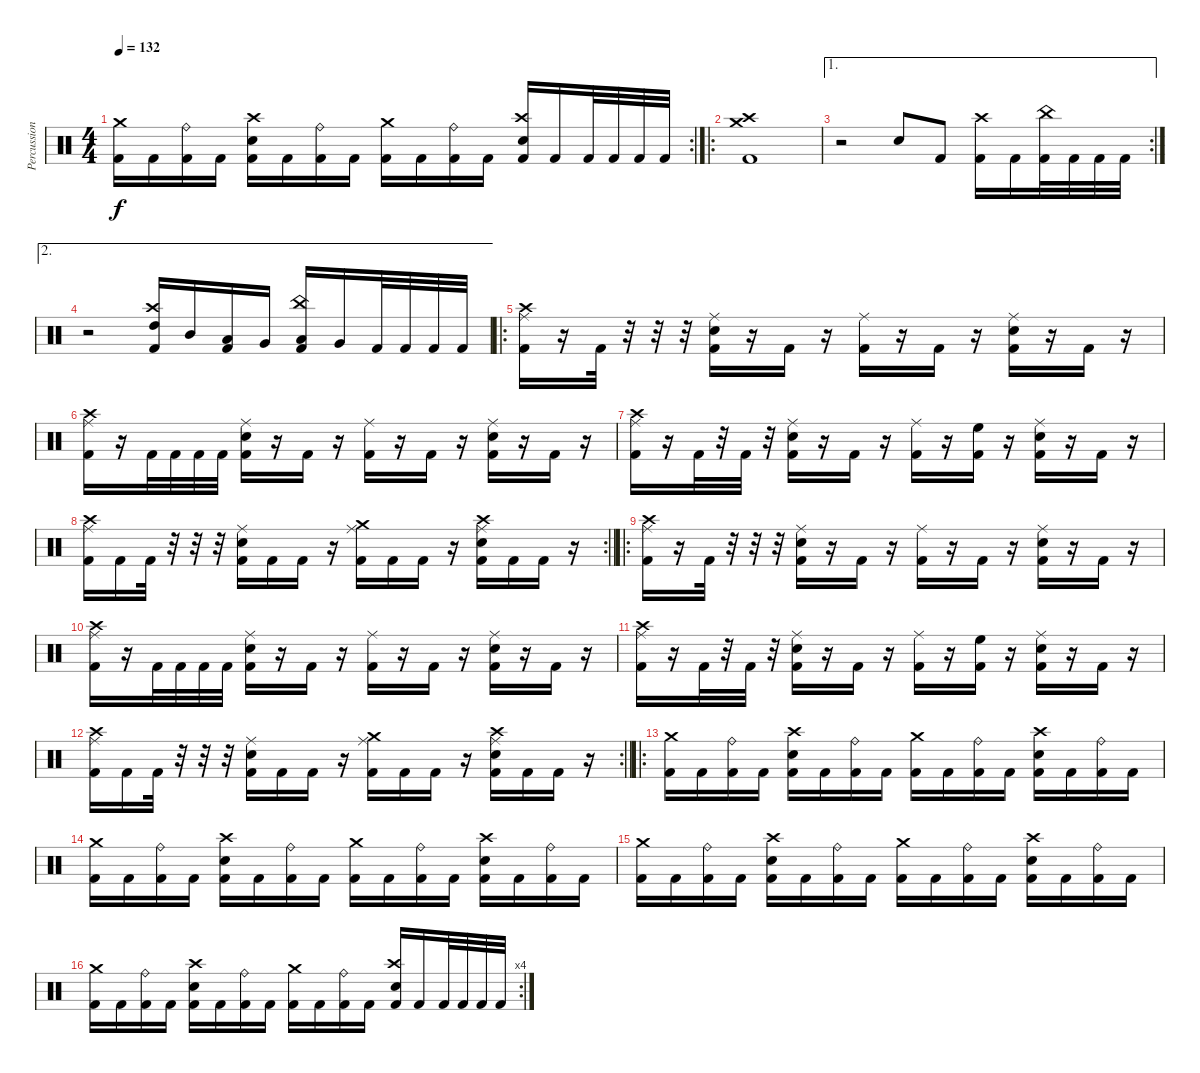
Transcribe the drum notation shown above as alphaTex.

\track ("Percussion" "Percussion") {instrument percussion}
\staff {score}
\articulation defaults
\rc 2
\ts (4 4)
\tempo 132
\clef neutral
\ks c
("Crash medium (hit)" "Kick (hit) 2").16{dy f} "Kick (hit) 2".16 ("Ride (bell)" "Kick (hit) 2").16 "Kick (hit) 2".16 ("Crash high (hit)" "Snare (hit) 2" "Kick (hit) 2").16 "Kick (hit) 2".16 ("Ride (bell)" "Kick (hit) 2").16 "Kick (hit) 2".16 ("Crash medium (hit)" "Kick (hit) 2").16 "Kick (hit) 2".16 ("Ride (bell)" "Kick (hit) 2").16 "Kick (hit) 2".16 ("Crash high (hit)" "Snare (hit) 2" "Kick (hit) 2").16 "Kick (hit) 2".16 "Kick (hit) 2".32 "Kick (hit) 2".32 "Kick (hit) 2".32 "Kick (hit) 2".32 |
\ro
("Crash high (hit)" "Crash medium (hit)" "Kick (hit) 2").1 |
\ae 1
\rc 2
r.2 "Snare (hit) 2".8 "Kick (hit) 2".8 ("Crash high (hit)" "Kick (hit) 2").16 "Kick (hit) 2".16 ("China (hit)" "Kick (hit) 2").32 "Kick (hit) 2".32 "Kick (hit) 2".32 "Kick (hit) 2".32 |
\ae 2
r.2 ("Crash high (hit)" "High Tom (hit)" "Kick (hit) 2").16 "Mid Tom (hit)".16 ("Low Tom (hit)" "Kick (hit) 2").16 "Very Low Tom (hit)".16 ("China (hit)" "Low Floor Tom (hit)" "Kick (hit) 2").16 "Very Low Tom (hit)".16 "Kick (hit) 2".32 "Kick (hit) 2".32 "Kick (hit) 2".32 "Kick (hit) 2".32 |
\ro
("Crash high (hit)" "Ride (middle)" "Kick (hit) 2").16 r.16 "Kick (hit) 2".32 r.32 r.32 r.32 ("Ride (middle)" "Snare (hit) 2" "Kick (hit) 2").16 r.16 "Kick (hit) 2".16 r.16 ("Ride (middle)" "Kick (hit) 2").16 r.16 "Kick (hit) 2".16 r.16 ("Ride (middle)" "Snare (hit) 2" "Kick (hit) 2").16 r.16 "Kick (hit) 2".16 r.16 |
("Crash high (hit)" "Ride (middle)" "Kick (hit) 2").16 r.16 "Kick (hit) 2".32 "Kick (hit) 2".32 "Kick (hit) 2".32 "Kick (hit) 2".32 ("Ride (middle)" "Snare (hit) 2" "Kick (hit) 2").16 r.16 "Kick (hit) 2".16 r.16 ("Ride (middle)" "Kick (hit) 2").16 r.16 "Kick (hit) 2".16 r.16 ("Ride (middle)" "Snare (hit) 2" "Kick (hit) 2").16 r.16 "Kick (hit) 2".16 r.16 |
("Crash high (hit)" "Ride (middle)" "Kick (hit) 2").16 r.16 "Kick (hit) 2".32 r.32 "Kick (hit) 2".32 r.32 ("Ride (middle)" "Snare (hit) 2" "Kick (hit) 2").16 r.16 "Kick (hit) 2".16 r.16 ("Ride (middle)" "Kick (hit) 2").16 r.16 ("High Floor Tom (hit)" "Kick (hit) 2").16 r.16 ("Ride (middle)" "Snare (hit) 2" "Kick (hit) 2").16 r.16 "Kick (hit) 2".16 r.16 |
\rc 2
\barLineRight lightlight
("Crash high (hit)" "Ride (middle)" "Kick (hit) 2").16 "Kick (hit) 2".16 "Kick (hit) 2".32 r.32 r.32 r.32 ("Ride (middle)" "Snare (hit) 2" "Kick (hit) 2").16 "Kick (hit) 2".16 "Kick (hit) 2".16 r.16 ("Crash medium (hit)" "Ride (middle)" "Kick (hit) 2").16 "Kick (hit) 2".16 "Kick (hit) 2".16 r.16 ("Crash high (hit)" "Ride (middle)" "Snare (hit) 2" "Kick (hit) 2").16 "Kick (hit) 2".16 "Kick (hit) 2".16 r.16 |
\ro
("Crash high (hit)" "Ride (middle)" "Kick (hit) 2").16 r.16 "Kick (hit) 2".32 r.32 r.32 r.32 ("Ride (middle)" "Snare (hit) 2" "Kick (hit) 2").16 r.16 "Kick (hit) 2".16 r.16 ("Ride (middle)" "Kick (hit) 2").16 r.16 "Kick (hit) 2".16 r.16 ("Ride (middle)" "Snare (hit) 2" "Kick (hit) 2").16 r.16 "Kick (hit) 2".16 r.16 |
("Crash high (hit)" "Ride (middle)" "Kick (hit) 2").16 r.16 "Kick (hit) 2".32 "Kick (hit) 2".32 "Kick (hit) 2".32 "Kick (hit) 2".32 ("Ride (middle)" "Snare (hit) 2" "Kick (hit) 2").16 r.16 "Kick (hit) 2".16 r.16 ("Ride (middle)" "Kick (hit) 2").16 r.16 "Kick (hit) 2".16 r.16 ("Ride (middle)" "Snare (hit) 2" "Kick (hit) 2").16 r.16 "Kick (hit) 2".16 r.16 |
("Crash high (hit)" "Ride (middle)" "Kick (hit) 2").16 r.16 "Kick (hit) 2".32 r.32 "Kick (hit) 2".32 r.32 ("Ride (middle)" "Snare (hit) 2" "Kick (hit) 2").16 r.16 "Kick (hit) 2".16 r.16 ("Ride (middle)" "Kick (hit) 2").16 r.16 ("High Floor Tom (hit)" "Kick (hit) 2").16 r.16 ("Ride (middle)" "Snare (hit) 2" "Kick (hit) 2").16 r.16 "Kick (hit) 2".16 r.16 |
\rc 2
\barLineRight lightlight
("Crash high (hit)" "Ride (middle)" "Kick (hit) 2").16 "Kick (hit) 2".16 "Kick (hit) 2".32 r.32 r.32 r.32 ("Ride (middle)" "Snare (hit) 2" "Kick (hit) 2").16 "Kick (hit) 2".16 "Kick (hit) 2".16 r.16 ("Crash medium (hit)" "Ride (middle)" "Kick (hit) 2").16 "Kick (hit) 2".16 "Kick (hit) 2".16 r.16 ("Crash high (hit)" "Ride (middle)" "Snare (hit) 2" "Kick (hit) 2").16 "Kick (hit) 2".16 "Kick (hit) 2".16 r.16 |
\ro
("Crash medium (hit)" "Kick (hit) 2").16 "Kick (hit) 2".16 ("Ride (bell)" "Kick (hit) 2").16 "Kick (hit) 2".16 ("Crash high (hit)" "Snare (hit) 2" "Kick (hit) 2").16 "Kick (hit) 2".16 ("Ride (bell)" "Kick (hit) 2").16 "Kick (hit) 2".16 ("Crash medium (hit)" "Kick (hit) 2").16 "Kick (hit) 2".16 ("Ride (bell)" "Kick (hit) 2").16 "Kick (hit) 2".16 ("Crash high (hit)" "Snare (hit) 2" "Kick (hit) 2").16 "Kick (hit) 2".16 ("Ride (bell)" "Kick (hit) 2").16 "Kick (hit) 2".16 |
("Crash medium (hit)" "Kick (hit) 2").16 "Kick (hit) 2".16 ("Ride (bell)" "Kick (hit) 2").16 "Kick (hit) 2".16 ("Crash high (hit)" "Snare (hit) 2" "Kick (hit) 2").16 "Kick (hit) 2".16 ("Ride (bell)" "Kick (hit) 2").16 "Kick (hit) 2".16 ("Crash medium (hit)" "Kick (hit) 2").16 "Kick (hit) 2".16 ("Ride (bell)" "Kick (hit) 2").16 "Kick (hit) 2".16 ("Crash high (hit)" "Snare (hit) 2" "Kick (hit) 2").16 "Kick (hit) 2".16 ("Ride (bell)" "Kick (hit) 2").16 "Kick (hit) 2".16 |
("Crash medium (hit)" "Kick (hit) 2").16 "Kick (hit) 2".16 ("Ride (bell)" "Kick (hit) 2").16 "Kick (hit) 2".16 ("Crash high (hit)" "Snare (hit) 2" "Kick (hit) 2").16 "Kick (hit) 2".16 ("Ride (bell)" "Kick (hit) 2").16 "Kick (hit) 2".16 ("Crash medium (hit)" "Kick (hit) 2").16 "Kick (hit) 2".16 ("Ride (bell)" "Kick (hit) 2").16 "Kick (hit) 2".16 ("Crash high (hit)" "Snare (hit) 2" "Kick (hit) 2").16 "Kick (hit) 2".16 ("Ride (bell)" "Kick (hit) 2").16 "Kick (hit) 2".16 |
\rc 4
("Crash medium (hit)" "Kick (hit) 2").16 "Kick (hit) 2".16 ("Ride (bell)" "Kick (hit) 2").16 "Kick (hit) 2".16 ("Crash high (hit)" "Snare (hit) 2" "Kick (hit) 2").16 "Kick (hit) 2".16 ("Ride (bell)" "Kick (hit) 2").16 "Kick (hit) 2".16 ("Crash medium (hit)" "Kick (hit) 2").16 "Kick (hit) 2".16 ("Ride (bell)" "Kick (hit) 2").16 "Kick (hit) 2".16 ("Crash high (hit)" "Snare (hit) 2" "Kick (hit) 2").16 "Kick (hit) 2".16 "Kick (hit) 2".32 "Kick (hit) 2".32 "Kick (hit) 2".32 "Kick (hit) 2".32
